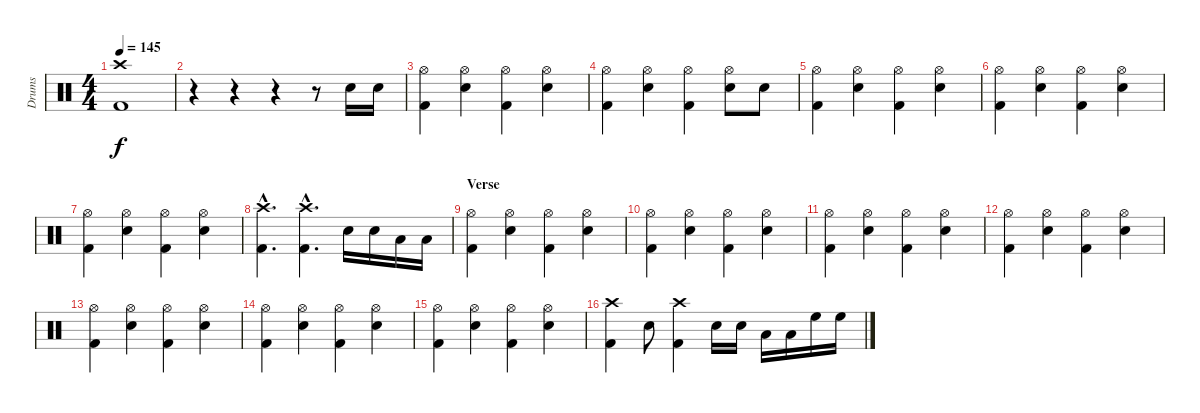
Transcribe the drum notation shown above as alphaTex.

\track ("Drums" "Drums") {instrument percussion}
\staff {score}
\articulation defaults
\ts (4 4)
\section ("" "")
\tempo 145
\clef neutral
\ks c
("Crash high (hit)" "Kick (hit) 2").1{dy f} |
r.4 r.4 r.4 r.8 "Electric Snare (hit)".16 "Electric Snare (hit)".16 |
("Hi-Hat (open)" "Kick (hit) 2").4 ("Hi-Hat (open)" "Electric Snare (hit)").4 ("Hi-Hat (open)" "Kick (hit) 2").4 ("Hi-Hat (open)" "Electric Snare (hit)").4 |
("Hi-Hat (open)" "Kick (hit) 2").4 ("Hi-Hat (open)" "Electric Snare (hit)").4 ("Hi-Hat (open)" "Kick (hit) 2").4 ("Hi-Hat (open)" "Electric Snare (hit)").8 "Electric Snare (hit)".8 |
("Hi-Hat (open)" "Kick (hit) 2").4 ("Hi-Hat (open)" "Electric Snare (hit)").4 ("Hi-Hat (open)" "Kick (hit) 2").4 ("Hi-Hat (open)" "Electric Snare (hit)").4 |
("Hi-Hat (open)" "Kick (hit) 2").4 ("Hi-Hat (open)" "Electric Snare (hit)").4 ("Hi-Hat (open)" "Kick (hit) 2").4 ("Hi-Hat (open)" "Electric Snare (hit)").4 |
("Hi-Hat (open)" "Kick (hit) 2").4 ("Hi-Hat (open)" "Electric Snare (hit)").4 ("Hi-Hat (open)" "Kick (hit) 2").4 ("Hi-Hat (open)" "Electric Snare (hit)").4 |
("Crash high (hit)"{hac} "Kick (hit) 2"{hac}).4{d} ("Crash high (hit)"{hac} "Kick (hit) 2"{hac}).4{d} "Electric Snare (hit)".16 "Electric Snare (hit)".16 "Low Tom (hit)".16 "Low Tom (hit)".16 |
\section ("" "Verse")
("Hi-Hat (open)" "Kick (hit) 2").4 ("Hi-Hat (open)" "Electric Snare (hit)").4 ("Hi-Hat (open)" "Kick (hit) 2").4 ("Hi-Hat (open)" "Electric Snare (hit)").4 |
("Hi-Hat (open)" "Kick (hit) 2").4 ("Hi-Hat (open)" "Electric Snare (hit)").4 ("Hi-Hat (open)" "Kick (hit) 2").4 ("Hi-Hat (open)" "Electric Snare (hit)").4 |
("Hi-Hat (open)" "Kick (hit) 2").4 ("Hi-Hat (open)" "Electric Snare (hit)").4 ("Hi-Hat (open)" "Kick (hit) 2").4 ("Hi-Hat (open)" "Electric Snare (hit)").4 |
("Hi-Hat (open)" "Kick (hit) 2").4 ("Hi-Hat (open)" "Electric Snare (hit)").4 ("Hi-Hat (open)" "Kick (hit) 2").4 ("Hi-Hat (open)" "Electric Snare (hit)").4 |
("Hi-Hat (open)" "Kick (hit) 2").4 ("Hi-Hat (open)" "Electric Snare (hit)").4 ("Hi-Hat (open)" "Kick (hit) 2").4 ("Hi-Hat (open)" "Electric Snare (hit)").4 |
("Hi-Hat (open)" "Kick (hit) 2").4 ("Hi-Hat (open)" "Electric Snare (hit)").4 ("Hi-Hat (open)" "Kick (hit) 2").4 ("Hi-Hat (open)" "Electric Snare (hit)").4 |
("Hi-Hat (open)" "Kick (hit) 2").4 ("Hi-Hat (open)" "Electric Snare (hit)").4 ("Hi-Hat (open)" "Kick (hit) 2").4 ("Hi-Hat (open)" "Electric Snare (hit)").4 |
("Crash high (hit)" "Kick (hit) 2").4 "Electric Snare (hit)".8 ("Crash high (hit)" "Kick (hit) 2").4 "Electric Snare (hit)".16 "Electric Snare (hit)".16 "Low Tom (hit)".16 "Low Tom (hit)".16 "High Floor Tom (hit)".16 "High Floor Tom (hit)".16
